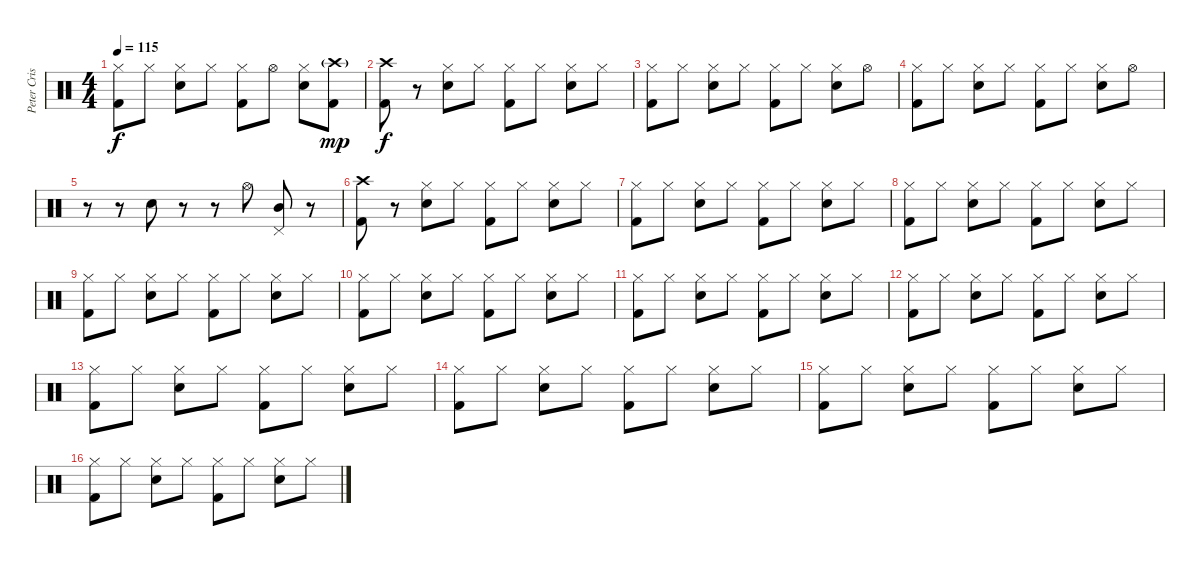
\track ("Peter Criss" "Peter Cris") {instrument percussion}
\staff {score}
\articulation defaults
\ts (4 4)
\tempo 115
\clef neutral
\ks c
("Hi-Hat (closed)" "Kick (hit) 2").8{dy f} "Hi-Hat (closed)".8 ("Hi-Hat (closed)" "Electric Snare (hit)").8 "Hi-Hat (closed)".8 ("Hi-Hat (closed)" "Kick (hit) 2").8 "Hi-Hat (open)".8 ("Hi-Hat (closed)" "Electric Snare (hit)").8 ("Crash high (hit)"{g} "Kick (hit) 2").8{dy mp} |
("Crash high (hit)" "Kick (hit) 2").8{dy f} r.8 ("Hi-Hat (closed)" "Electric Snare (hit)").8 "Hi-Hat (closed)".8 ("Hi-Hat (closed)" "Kick (hit) 2").8 "Hi-Hat (closed)".8 ("Hi-Hat (closed)" "Electric Snare (hit)").8 "Hi-Hat (closed)".8 |
("Hi-Hat (closed)" "Kick (hit) 2").8 "Hi-Hat (closed)".8 ("Hi-Hat (closed)" "Electric Snare (hit)").8 "Hi-Hat (closed)".8 ("Hi-Hat (closed)" "Kick (hit) 2").8 "Hi-Hat (closed)".8 ("Hi-Hat (closed)" "Electric Snare (hit)").8 "Hi-Hat (open)".8 |
("Hi-Hat (closed)" "Kick (hit) 2").8 "Hi-Hat (closed)".8 ("Hi-Hat (closed)" "Electric Snare (hit)").8 "Hi-Hat (closed)".8 ("Hi-Hat (closed)" "Kick (hit) 2").8 "Hi-Hat (closed)".8 ("Hi-Hat (closed)" "Electric Snare (hit)").8 "Hi-Hat (open)".8 |
r.8 r.8 "Electric Snare (hit)".8 r.8 r.8 "Hi-Hat (open)".8 ("Pedal Hi-Hat (hit)" "Mid Tom (hit)").8 r.8 |
("Crash high (hit)" "Kick (hit) 2").8 r.8 ("Hi-Hat (closed)" "Electric Snare (hit)").8 "Hi-Hat (closed)".8 ("Hi-Hat (closed)" "Kick (hit) 2").8 "Hi-Hat (closed)".8 ("Hi-Hat (closed)" "Electric Snare (hit)").8 "Hi-Hat (closed)".8 |
("Hi-Hat (closed)" "Kick (hit) 2").8 "Hi-Hat (closed)".8 ("Hi-Hat (closed)" "Electric Snare (hit)").8 "Hi-Hat (closed)".8 ("Hi-Hat (closed)" "Kick (hit) 2").8 "Hi-Hat (closed)".8 ("Hi-Hat (closed)" "Electric Snare (hit)").8 "Hi-Hat (closed)".8 |
("Hi-Hat (closed)" "Kick (hit) 2").8 "Hi-Hat (closed)".8 ("Hi-Hat (closed)" "Electric Snare (hit)").8 "Hi-Hat (closed)".8 ("Hi-Hat (closed)" "Kick (hit) 2").8 "Hi-Hat (closed)".8 ("Hi-Hat (closed)" "Electric Snare (hit)").8 "Hi-Hat (closed)".8 |
("Hi-Hat (closed)" "Kick (hit) 2").8 "Hi-Hat (closed)".8 ("Hi-Hat (closed)" "Electric Snare (hit)").8 "Hi-Hat (closed)".8 ("Hi-Hat (closed)" "Kick (hit) 2").8 "Hi-Hat (closed)".8 ("Hi-Hat (closed)" "Electric Snare (hit)").8 "Hi-Hat (closed)".8 |
("Hi-Hat (closed)" "Kick (hit) 2").8 "Hi-Hat (closed)".8 ("Hi-Hat (closed)" "Electric Snare (hit)").8 "Hi-Hat (closed)".8 ("Hi-Hat (closed)" "Kick (hit) 2").8 "Hi-Hat (closed)".8 ("Hi-Hat (closed)" "Electric Snare (hit)").8 "Hi-Hat (closed)".8 |
("Hi-Hat (closed)" "Kick (hit) 2").8 "Hi-Hat (closed)".8 ("Hi-Hat (closed)" "Electric Snare (hit)").8 "Hi-Hat (closed)".8 ("Hi-Hat (closed)" "Kick (hit) 2").8 "Hi-Hat (closed)".8 ("Hi-Hat (closed)" "Electric Snare (hit)").8 "Hi-Hat (closed)".8 |
("Hi-Hat (closed)" "Kick (hit) 2").8 "Hi-Hat (closed)".8 ("Hi-Hat (closed)" "Electric Snare (hit)").8 "Hi-Hat (closed)".8 ("Hi-Hat (closed)" "Kick (hit) 2").8 "Hi-Hat (closed)".8 ("Hi-Hat (closed)" "Electric Snare (hit)").8 "Hi-Hat (closed)".8 |
("Hi-Hat (closed)" "Kick (hit) 2").8 "Hi-Hat (closed)".8 ("Hi-Hat (closed)" "Electric Snare (hit)").8 "Hi-Hat (closed)".8 ("Hi-Hat (closed)" "Kick (hit) 2").8 "Hi-Hat (closed)".8 ("Hi-Hat (closed)" "Electric Snare (hit)").8 "Hi-Hat (closed)".8 |
("Hi-Hat (closed)" "Kick (hit) 2").8 "Hi-Hat (closed)".8 ("Hi-Hat (closed)" "Electric Snare (hit)").8 "Hi-Hat (closed)".8 ("Hi-Hat (closed)" "Kick (hit) 2").8 "Hi-Hat (closed)".8 ("Hi-Hat (closed)" "Electric Snare (hit)").8 "Hi-Hat (closed)".8 |
("Hi-Hat (closed)" "Kick (hit) 2").8 "Hi-Hat (closed)".8 ("Hi-Hat (closed)" "Electric Snare (hit)").8 "Hi-Hat (closed)".8 ("Hi-Hat (closed)" "Kick (hit) 2").8 "Hi-Hat (closed)".8 ("Hi-Hat (closed)" "Electric Snare (hit)").8 "Hi-Hat (closed)".8 |
("Hi-Hat (closed)" "Kick (hit) 2").8 "Hi-Hat (closed)".8 ("Hi-Hat (closed)" "Electric Snare (hit)").8 "Hi-Hat (closed)".8 ("Hi-Hat (closed)" "Kick (hit) 2").8 "Hi-Hat (closed)".8 ("Hi-Hat (closed)" "Electric Snare (hit)").8 "Hi-Hat (closed)".8
